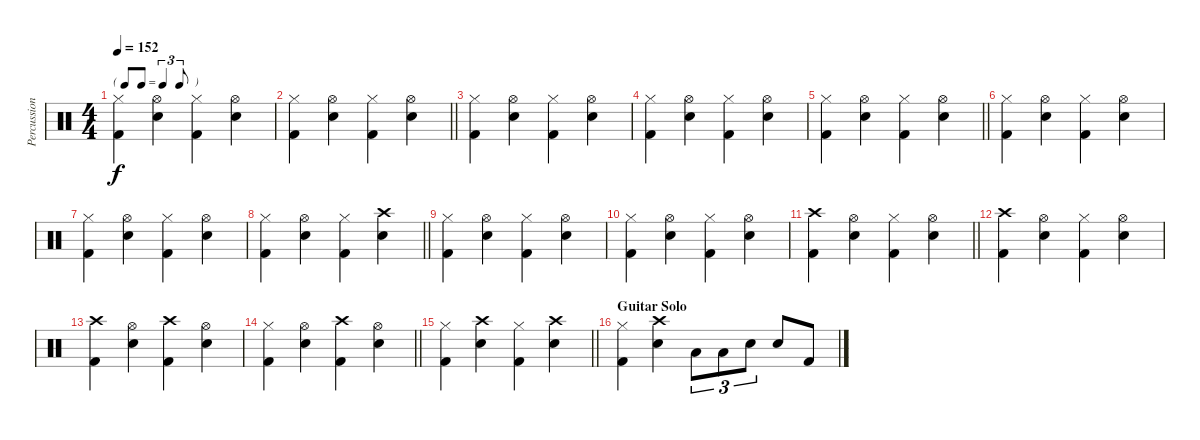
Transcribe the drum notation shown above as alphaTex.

\track ("Percussion" "Percussion") {instrument percussion}
\staff {score}
\articulation defaults
\ts (4 4)
\tf triplet8th
\tempo 152
\clef neutral
\ks c
("Hi-Hat (closed)" "Kick (hit) 2").4{dy f} ("Hi-Hat (open)" "Snare (hit) 2").4 ("Hi-Hat (closed)" "Kick (hit) 2").4 ("Hi-Hat (open)" "Snare (hit) 2").4 |
\barLineRight lightlight
("Hi-Hat (closed)" "Kick (hit) 2").4 ("Hi-Hat (open)" "Snare (hit) 2").4 ("Hi-Hat (closed)" "Kick (hit) 2").4 ("Hi-Hat (open)" "Snare (hit) 2").4 |
("Hi-Hat (closed)" "Kick (hit) 2").4 ("Hi-Hat (open)" "Snare (hit) 2").4 ("Hi-Hat (closed)" "Kick (hit) 2").4 ("Hi-Hat (open)" "Snare (hit) 2").4 |
("Hi-Hat (closed)" "Kick (hit) 2").4 ("Hi-Hat (open)" "Snare (hit) 2").4 ("Hi-Hat (closed)" "Kick (hit) 2").4 ("Hi-Hat (open)" "Snare (hit) 2").4 |
\barLineRight lightlight
("Hi-Hat (closed)" "Kick (hit) 2").4 ("Hi-Hat (open)" "Snare (hit) 2").4 ("Hi-Hat (closed)" "Kick (hit) 2").4 ("Hi-Hat (open)" "Snare (hit) 2").4 |
("Hi-Hat (closed)" "Kick (hit) 2").4 ("Hi-Hat (open)" "Snare (hit) 2").4 ("Hi-Hat (closed)" "Kick (hit) 2").4 ("Hi-Hat (open)" "Snare (hit) 2").4 |
("Hi-Hat (closed)" "Kick (hit) 2").4 ("Hi-Hat (open)" "Snare (hit) 2").4 ("Hi-Hat (closed)" "Kick (hit) 2").4 ("Hi-Hat (open)" "Snare (hit) 2").4 |
\barLineRight lightlight
("Hi-Hat (closed)" "Kick (hit) 2").4 ("Hi-Hat (open)" "Snare (hit) 2").4 ("Hi-Hat (closed)" "Kick (hit) 2").4 ("Crash high (hit)" "Snare (hit) 2").4 |
("Hi-Hat (closed)" "Kick (hit) 2").4 ("Hi-Hat (open)" "Snare (hit) 2").4 ("Hi-Hat (closed)" "Kick (hit) 2").4 ("Hi-Hat (open)" "Snare (hit) 2").4 |
("Hi-Hat (closed)" "Kick (hit) 2").4 ("Hi-Hat (open)" "Snare (hit) 2").4 ("Hi-Hat (closed)" "Kick (hit) 2").4 ("Hi-Hat (open)" "Snare (hit) 2").4 |
\barLineRight lightlight
("Crash high (hit)" "Kick (hit) 2").4 ("Hi-Hat (open)" "Snare (hit) 2").4 ("Hi-Hat (closed)" "Kick (hit) 2").4 ("Hi-Hat (open)" "Snare (hit) 2").4 |
("Crash high (hit)" "Kick (hit) 2").4 ("Hi-Hat (open)" "Snare (hit) 2").4 ("Hi-Hat (closed)" "Kick (hit) 2").4 ("Hi-Hat (open)" "Snare (hit) 2").4 |
("Crash high (hit)" "Kick (hit) 2").4 ("Hi-Hat (open)" "Snare (hit) 2").4 ("Crash high (hit)" "Kick (hit) 2").4 ("Hi-Hat (open)" "Snare (hit) 2").4 |
\barLineRight lightlight
("Hi-Hat (closed)" "Kick (hit) 2").4 ("Hi-Hat (open)" "Snare (hit) 2").4 ("Crash high (hit)" "Kick (hit) 2").4 ("Hi-Hat (open)" "Snare (hit) 2").4 |
\barLineRight lightlight
("Hi-Hat (closed)" "Kick (hit) 2").4 ("Crash high (hit)" "Snare (hit) 2").4 ("Hi-Hat (closed)" "Kick (hit) 2").4 ("Crash high (hit)" "Snare (hit) 2").4 |
\section ("" "Guitar Solo")
("Hi-Hat (closed)" "Kick (hit) 2").4 ("Crash high (hit)" "Snare (hit) 2").4 "Low Tom (hit)".8{tu (3 2)} "Low Tom (hit)".8{tu (3 2)} "Snare (hit) 2".8{tu (3 2)} "Snare (hit) 2".8 "Kick (hit) 2".8
